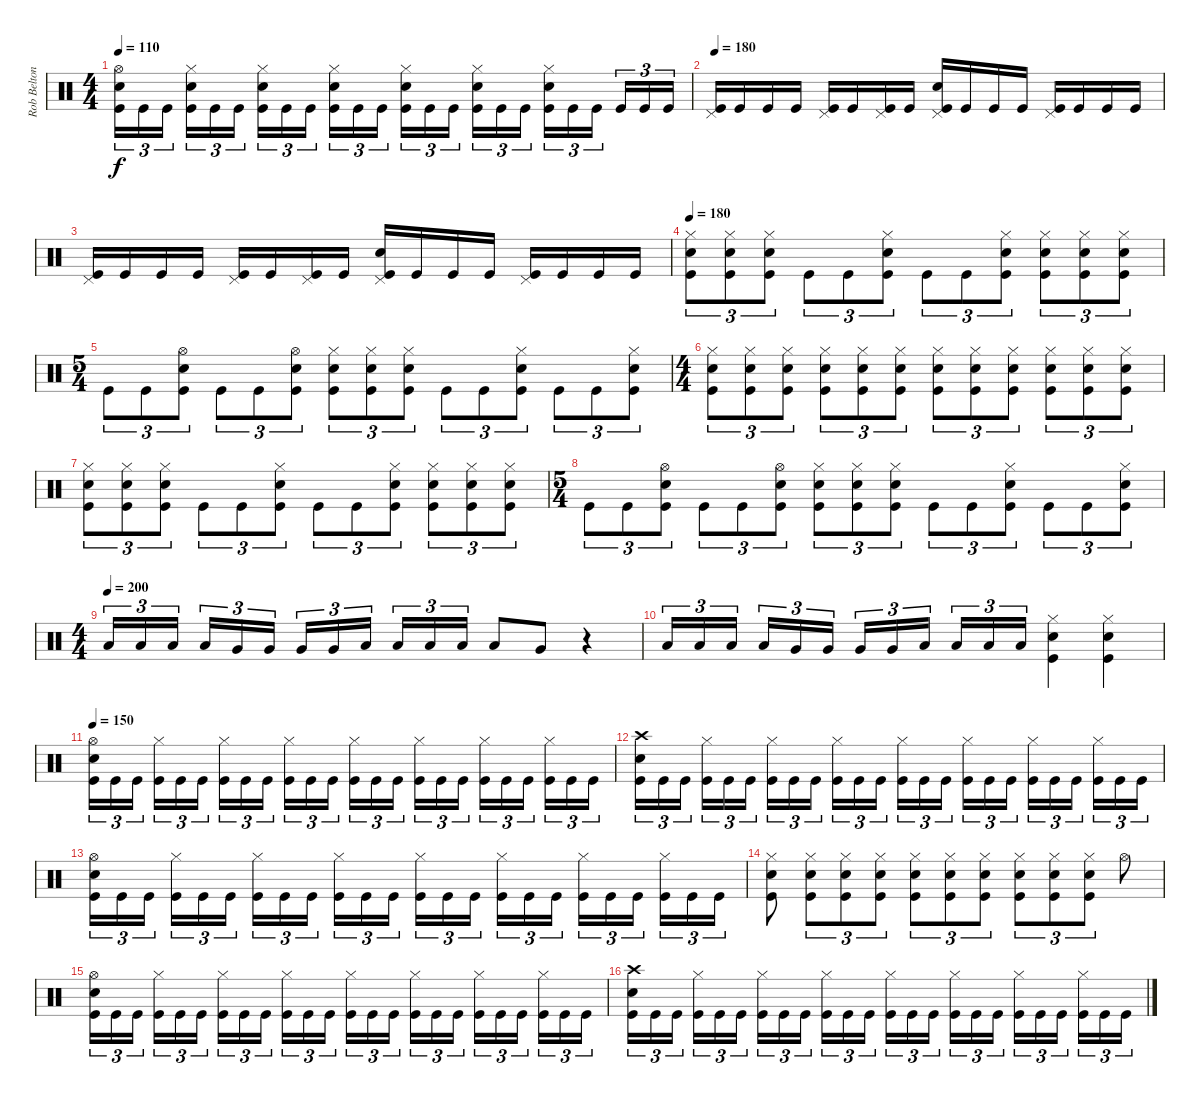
\track ("Rob Belton" "Rob Belton") {instrument percussion}
\staff {score}
\articulation defaults
\ts (4 4)
\tempo 110
\clef neutral
\ks c
("Hi-Hat (open)" "Snare (hit) 2" "Kick (hit)").16{tu (3 2) dy f} "Kick (hit)".16{tu (3 2)} "Kick (hit)".16{tu (3 2) beam splitsecondary} ("Hi-Hat (closed)" "Snare (hit) 2" "Kick (hit)").16{tu (3 2)} "Kick (hit)".16{tu (3 2)} "Kick (hit)".16{tu (3 2)} ("Hi-Hat (closed)" "Snare (hit) 2" "Kick (hit)").16{tu (3 2)} "Kick (hit)".16{tu (3 2)} "Kick (hit)".16{tu (3 2) beam splitsecondary} ("Hi-Hat (closed)" "Snare (hit) 2" "Kick (hit)").16{tu (3 2)} "Kick (hit)".16{tu (3 2)} "Kick (hit)".16{tu (3 2)} ("Hi-Hat (closed)" "Snare (hit) 2" "Kick (hit)").16{tu (3 2)} "Kick (hit)".16{tu (3 2)} "Kick (hit)".16{tu (3 2) beam splitsecondary} ("Hi-Hat (closed)" "Snare (hit) 2" "Kick (hit)").16{tu (3 2)} "Kick (hit)".16{tu (3 2)} "Kick (hit)".16{tu (3 2)} ("Hi-Hat (closed)" "Snare (hit) 2" "Kick (hit)").16{tu (3 2)} "Kick (hit)".16{tu (3 2)} "Kick (hit)".16{tu (3 2) beam splitsecondary} "Kick (hit)".16{tu (3 2)} "Kick (hit)".16{tu (3 2)} "Kick (hit)".16{tu (3 2)} |
\tempo 180
("Pedal Hi-Hat (hit)" "Kick (hit)").16 "Kick (hit)".16 "Kick (hit)".16 "Kick (hit)".16 ("Pedal Hi-Hat (hit)" "Kick (hit)").16 "Kick (hit)".16 ("Pedal Hi-Hat (hit)" "Kick (hit)").16 "Kick (hit)".16 ("Pedal Hi-Hat (hit)" "Snare (hit) 2" "Kick (hit)").16 "Kick (hit)".16 "Kick (hit)".16 "Kick (hit)".16 ("Pedal Hi-Hat (hit)" "Kick (hit)").16 "Kick (hit)".16 "Kick (hit)".16 "Kick (hit)".16 |
("Pedal Hi-Hat (hit)" "Kick (hit)").16 "Kick (hit)".16 "Kick (hit)".16 "Kick (hit)".16 ("Pedal Hi-Hat (hit)" "Kick (hit)").16 "Kick (hit)".16 ("Pedal Hi-Hat (hit)" "Kick (hit)").16 "Kick (hit)".16 ("Pedal Hi-Hat (hit)" "Snare (hit) 2" "Kick (hit)").16 "Kick (hit)".16 "Kick (hit)".16 "Kick (hit)".16 ("Pedal Hi-Hat (hit)" "Kick (hit)").16 "Kick (hit)".16 "Kick (hit)".16 "Kick (hit)".16 |
\tempo 180
("Hi-Hat (closed)" "Snare (hit) 2" "Kick (hit)").8{tu (3 2)} ("Hi-Hat (closed)" "Snare (hit) 2" "Kick (hit)").8{tu (3 2)} ("Hi-Hat (closed)" "Snare (hit) 2" "Kick (hit)").8{tu (3 2)} "Kick (hit)".8{tu (3 2)} "Kick (hit)".8{tu (3 2)} ("Hi-Hat (closed)" "Snare (hit) 2" "Kick (hit)").8{tu (3 2)} "Kick (hit)".8{tu (3 2)} "Kick (hit)".8{tu (3 2)} ("Hi-Hat (closed)" "Snare (hit) 2" "Kick (hit)").8{tu (3 2)} ("Hi-Hat (closed)" "Snare (hit) 2" "Kick (hit)").8{tu (3 2)} ("Hi-Hat (closed)" "Snare (hit) 2" "Kick (hit)").8{tu (3 2)} ("Hi-Hat (closed)" "Snare (hit) 2" "Kick (hit)").8{tu (3 2)} |
\ts (5 4)
"Kick (hit)".8{tu (3 2)} "Kick (hit)".8{tu (3 2)} ("Hi-Hat (open)" "Snare (hit) 2" "Kick (hit)").8{tu (3 2)} "Kick (hit)".8{tu (3 2)} "Kick (hit)".8{tu (3 2)} ("Hi-Hat (open)" "Snare (hit) 2" "Kick (hit)").8{tu (3 2)} ("Hi-Hat (closed)" "Snare (hit) 2" "Kick (hit)").8{tu (3 2)} ("Hi-Hat (closed)" "Snare (hit) 2" "Kick (hit)").8{tu (3 2)} ("Hi-Hat (closed)" "Snare (hit) 2" "Kick (hit)").8{tu (3 2)} "Kick (hit)".8{tu (3 2)} "Kick (hit)".8{tu (3 2)} ("Hi-Hat (closed)" "Snare (hit) 2" "Kick (hit)").8{tu (3 2)} "Kick (hit)".8{tu (3 2)} "Kick (hit)".8{tu (3 2)} ("Hi-Hat (closed)" "Snare (hit) 2" "Kick (hit)").8{tu (3 2)} |
\ts (4 4)
("Hi-Hat (closed)" "Snare (hit) 2" "Kick (hit)").8{tu (3 2)} ("Hi-Hat (closed)" "Snare (hit) 2" "Kick (hit)").8{tu (3 2)} ("Hi-Hat (closed)" "Snare (hit) 2" "Kick (hit)").8{tu (3 2)} ("Hi-Hat (closed)" "Snare (hit) 2" "Kick (hit)").8{tu (3 2)} ("Hi-Hat (closed)" "Snare (hit) 2" "Kick (hit)").8{tu (3 2)} ("Hi-Hat (closed)" "Snare (hit) 2" "Kick (hit)").8{tu (3 2)} ("Hi-Hat (closed)" "Snare (hit) 2" "Kick (hit)").8{tu (3 2)} ("Hi-Hat (closed)" "Snare (hit) 2" "Kick (hit)").8{tu (3 2)} ("Hi-Hat (closed)" "Snare (hit) 2" "Kick (hit)").8{tu (3 2)} ("Hi-Hat (closed)" "Snare (hit) 2" "Kick (hit)").8{tu (3 2)} ("Hi-Hat (closed)" "Snare (hit) 2" "Kick (hit)").8{tu (3 2)} ("Hi-Hat (closed)" "Snare (hit) 2" "Kick (hit)").8{tu (3 2)} |
("Hi-Hat (closed)" "Snare (hit) 2" "Kick (hit)").8{tu (3 2)} ("Hi-Hat (closed)" "Snare (hit) 2" "Kick (hit)").8{tu (3 2)} ("Hi-Hat (closed)" "Snare (hit) 2" "Kick (hit)").8{tu (3 2)} "Kick (hit)".8{tu (3 2)} "Kick (hit)".8{tu (3 2)} ("Hi-Hat (closed)" "Snare (hit) 2" "Kick (hit)").8{tu (3 2)} "Kick (hit)".8{tu (3 2)} "Kick (hit)".8{tu (3 2)} ("Hi-Hat (closed)" "Snare (hit) 2" "Kick (hit)").8{tu (3 2)} ("Hi-Hat (closed)" "Snare (hit) 2" "Kick (hit)").8{tu (3 2)} ("Hi-Hat (closed)" "Snare (hit) 2" "Kick (hit)").8{tu (3 2)} ("Hi-Hat (closed)" "Snare (hit) 2" "Kick (hit)").8{tu (3 2)} |
\ts (5 4)
"Kick (hit)".8{tu (3 2)} "Kick (hit)".8{tu (3 2)} ("Hi-Hat (open)" "Snare (hit) 2" "Kick (hit)").8{tu (3 2)} "Kick (hit)".8{tu (3 2)} "Kick (hit)".8{tu (3 2)} ("Hi-Hat (open)" "Snare (hit) 2" "Kick (hit)").8{tu (3 2)} ("Hi-Hat (closed)" "Snare (hit) 2" "Kick (hit)").8{tu (3 2)} ("Hi-Hat (closed)" "Snare (hit) 2" "Kick (hit)").8{tu (3 2)} ("Hi-Hat (closed)" "Snare (hit) 2" "Kick (hit)").8{tu (3 2)} "Kick (hit)".8{tu (3 2)} "Kick (hit)".8{tu (3 2)} ("Hi-Hat (closed)" "Snare (hit) 2" "Kick (hit)").8{tu (3 2)} "Kick (hit)".8{tu (3 2)} "Kick (hit)".8{tu (3 2)} ("Hi-Hat (closed)" "Snare (hit) 2" "Kick (hit)").8{tu (3 2)} |
\ts (4 4)
\tempo (200)
"Low Tom (hit)".16{tu (3 2)} "Low Tom (hit)".16{tu (3 2)} "Low Tom (hit)".16{tu (3 2) beam splitsecondary} "Low Tom (hit)".16{tu (3 2)} "Very Low Tom (hit)".16{tu (3 2)} "Very Low Tom (hit)".16{tu (3 2)} "Very Low Tom (hit)".16{tu (3 2)} "Very Low Tom (hit)".16{tu (3 2)} "Low Floor Tom (hit)".16{tu (3 2) beam splitsecondary} "Low Floor Tom (hit)".16{tu (3 2)} "Low Floor Tom (hit)".16{tu (3 2)} "Low Floor Tom (hit)".16{tu (3 2)} "Low Floor Tom (hit)".8 "Very Low Tom (hit)".8 r.4 |
"Low Tom (hit)".16{tu (3 2)} "Low Tom (hit)".16{tu (3 2)} "Low Tom (hit)".16{tu (3 2) beam splitsecondary} "Low Tom (hit)".16{tu (3 2)} "Very Low Tom (hit)".16{tu (3 2)} "Very Low Tom (hit)".16{tu (3 2)} "Very Low Tom (hit)".16{tu (3 2)} "Very Low Tom (hit)".16{tu (3 2)} "Low Floor Tom (hit)".16{tu (3 2) beam splitsecondary} "Low Floor Tom (hit)".16{tu (3 2)} "Low Floor Tom (hit)".16{tu (3 2)} "Low Floor Tom (hit)".16{tu (3 2)} ("Hi-Hat (closed)" "Snare (hit) 2" "Kick (hit)").4 ("Hi-Hat (closed)" "Snare (hit) 2" "Kick (hit)").4 |
\tempo 150
("Hi-Hat (open)" "Snare (hit) 2" "Kick (hit)").16{tu (3 2)} "Kick (hit)".16{tu (3 2)} "Kick (hit)".16{tu (3 2) beam splitsecondary} ("Hi-Hat (closed)" "Kick (hit)").16{tu (3 2)} "Kick (hit)".16{tu (3 2)} "Kick (hit)".16{tu (3 2)} ("Hi-Hat (closed)" "Kick (hit)").16{tu (3 2)} "Kick (hit)".16{tu (3 2)} "Kick (hit)".16{tu (3 2) beam splitsecondary} ("Hi-Hat (closed)" "Kick (hit)").16{tu (3 2)} "Kick (hit)".16{tu (3 2)} "Kick (hit)".16{tu (3 2)} ("Hi-Hat (closed)" "Kick (hit)").16{tu (3 2)} "Kick (hit)".16{tu (3 2)} "Kick (hit)".16{tu (3 2) beam splitsecondary} ("Hi-Hat (closed)" "Kick (hit)").16{tu (3 2)} "Kick (hit)".16{tu (3 2)} "Kick (hit)".16{tu (3 2)} ("Hi-Hat (closed)" "Kick (hit)").16{tu (3 2)} "Kick (hit)".16{tu (3 2)} "Kick (hit)".16{tu (3 2) beam splitsecondary} ("Hi-Hat (closed)" "Kick (hit)").16{tu (3 2)} "Kick (hit)".16{tu (3 2)} "Kick (hit)".16{tu (3 2)} |
("Crash high (hit)" "Snare (hit) 2" "Kick (hit)").16{tu (3 2)} "Kick (hit)".16{tu (3 2)} "Kick (hit)".16{tu (3 2) beam splitsecondary} ("Hi-Hat (closed)" "Kick (hit)").16{tu (3 2)} "Kick (hit)".16{tu (3 2)} "Kick (hit)".16{tu (3 2)} ("Hi-Hat (closed)" "Kick (hit)").16{tu (3 2)} "Kick (hit)".16{tu (3 2)} "Kick (hit)".16{tu (3 2) beam splitsecondary} ("Hi-Hat (closed)" "Kick (hit)").16{tu (3 2)} "Kick (hit)".16{tu (3 2)} "Kick (hit)".16{tu (3 2)} ("Hi-Hat (closed)" "Kick (hit)").16{tu (3 2)} "Kick (hit)".16{tu (3 2)} "Kick (hit)".16{tu (3 2) beam splitsecondary} ("Hi-Hat (closed)" "Kick (hit)").16{tu (3 2)} "Kick (hit)".16{tu (3 2)} "Kick (hit)".16{tu (3 2)} ("Hi-Hat (closed)" "Kick (hit)").16{tu (3 2)} "Kick (hit)".16{tu (3 2)} "Kick (hit)".16{tu (3 2) beam splitsecondary} ("Hi-Hat (closed)" "Kick (hit)").16{tu (3 2)} "Kick (hit)".16{tu (3 2)} "Kick (hit)".16{tu (3 2)} |
("Hi-Hat (open)" "Snare (hit) 2" "Kick (hit)").16{tu (3 2)} "Kick (hit)".16{tu (3 2)} "Kick (hit)".16{tu (3 2) beam splitsecondary} ("Hi-Hat (closed)" "Kick (hit)").16{tu (3 2)} "Kick (hit)".16{tu (3 2)} "Kick (hit)".16{tu (3 2)} ("Hi-Hat (closed)" "Kick (hit)").16{tu (3 2)} "Kick (hit)".16{tu (3 2)} "Kick (hit)".16{tu (3 2) beam splitsecondary} ("Hi-Hat (closed)" "Kick (hit)").16{tu (3 2)} "Kick (hit)".16{tu (3 2)} "Kick (hit)".16{tu (3 2)} ("Hi-Hat (closed)" "Kick (hit)").16{tu (3 2)} "Kick (hit)".16{tu (3 2)} "Kick (hit)".16{tu (3 2) beam splitsecondary} ("Hi-Hat (closed)" "Kick (hit)").16{tu (3 2)} "Kick (hit)".16{tu (3 2)} "Kick (hit)".16{tu (3 2)} ("Hi-Hat (closed)" "Kick (hit)").16{tu (3 2)} "Kick (hit)".16{tu (3 2)} "Kick (hit)".16{tu (3 2) beam splitsecondary} ("Hi-Hat (closed)" "Kick (hit)").16{tu (3 2)} "Kick (hit)".16{tu (3 2)} "Kick (hit)".16{tu (3 2)} |
("Hi-Hat (closed)" "Snare (hit) 2" "Kick (hit)").8 ("Hi-Hat (closed)" "Snare (hit) 2" "Kick (hit)").8{tu (3 2)} ("Hi-Hat (closed)" "Snare (hit) 2" "Kick (hit)").8{tu (3 2)} ("Hi-Hat (closed)" "Snare (hit) 2" "Kick (hit)").8{tu (3 2)} ("Hi-Hat (closed)" "Snare (hit) 2" "Kick (hit)").8{tu (3 2)} ("Hi-Hat (closed)" "Snare (hit) 2" "Kick (hit)").8{tu (3 2)} ("Hi-Hat (closed)" "Snare (hit) 2" "Kick (hit)").8{tu (3 2)} ("Hi-Hat (closed)" "Snare (hit) 2" "Kick (hit)").8{tu (3 2)} ("Hi-Hat (closed)" "Snare (hit) 2" "Kick (hit)").8{tu (3 2)} ("Hi-Hat (closed)" "Snare (hit) 2" "Kick (hit)").8{tu (3 2)} "Hi-Hat (open)".8 |
("Hi-Hat (open)" "Snare (hit) 2" "Kick (hit)").16{tu (3 2)} "Kick (hit)".16{tu (3 2)} "Kick (hit)".16{tu (3 2) beam splitsecondary} ("Hi-Hat (closed)" "Kick (hit)").16{tu (3 2)} "Kick (hit)".16{tu (3 2)} "Kick (hit)".16{tu (3 2)} ("Hi-Hat (closed)" "Kick (hit)").16{tu (3 2)} "Kick (hit)".16{tu (3 2)} "Kick (hit)".16{tu (3 2) beam splitsecondary} ("Hi-Hat (closed)" "Kick (hit)").16{tu (3 2)} "Kick (hit)".16{tu (3 2)} "Kick (hit)".16{tu (3 2)} ("Hi-Hat (closed)" "Kick (hit)").16{tu (3 2)} "Kick (hit)".16{tu (3 2)} "Kick (hit)".16{tu (3 2) beam splitsecondary} ("Hi-Hat (closed)" "Kick (hit)").16{tu (3 2)} "Kick (hit)".16{tu (3 2)} "Kick (hit)".16{tu (3 2)} ("Hi-Hat (closed)" "Kick (hit)").16{tu (3 2)} "Kick (hit)".16{tu (3 2)} "Kick (hit)".16{tu (3 2) beam splitsecondary} ("Hi-Hat (closed)" "Kick (hit)").16{tu (3 2)} "Kick (hit)".16{tu (3 2)} "Kick (hit)".16{tu (3 2)} |
("Crash high (hit)" "Snare (hit) 2" "Kick (hit)").16{tu (3 2)} "Kick (hit)".16{tu (3 2)} "Kick (hit)".16{tu (3 2) beam splitsecondary} ("Hi-Hat (closed)" "Kick (hit)").16{tu (3 2)} "Kick (hit)".16{tu (3 2)} "Kick (hit)".16{tu (3 2)} ("Hi-Hat (closed)" "Kick (hit)").16{tu (3 2)} "Kick (hit)".16{tu (3 2)} "Kick (hit)".16{tu (3 2) beam splitsecondary} ("Hi-Hat (closed)" "Kick (hit)").16{tu (3 2)} "Kick (hit)".16{tu (3 2)} "Kick (hit)".16{tu (3 2)} ("Hi-Hat (closed)" "Kick (hit)").16{tu (3 2)} "Kick (hit)".16{tu (3 2)} "Kick (hit)".16{tu (3 2) beam splitsecondary} ("Hi-Hat (closed)" "Kick (hit)").16{tu (3 2)} "Kick (hit)".16{tu (3 2)} "Kick (hit)".16{tu (3 2)} ("Hi-Hat (closed)" "Kick (hit)").16{tu (3 2)} "Kick (hit)".16{tu (3 2)} "Kick (hit)".16{tu (3 2) beam splitsecondary} ("Hi-Hat (closed)" "Kick (hit)").16{tu (3 2)} "Kick (hit)".16{tu (3 2)} "Kick (hit)".16{tu (3 2)}
